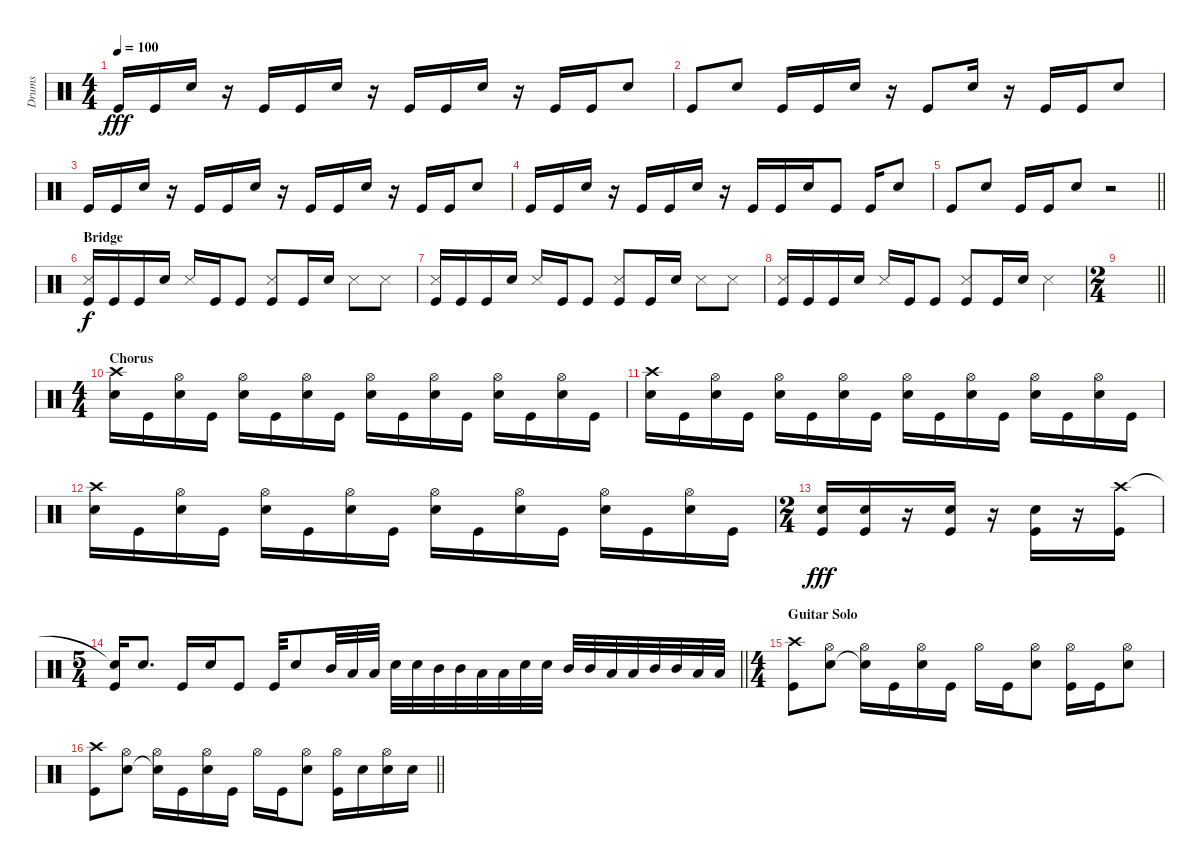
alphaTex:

\track ("Drums" "Drums") {instrument percussion}
\staff {score}
\articulation defaults
\ts (4 4)
\tempo 100
\clef neutral
\ks c "Kick (hit)".16{dy fff} "Kick (hit)".16 "Snare (hit) 2".16
r.16 "Kick (hit)".16 "Kick (hit)".16 "Snare (hit) 2".16 r.16 "Kick (hit)".16 "Kick (hit)".16 "Snare (hit) 2".16 r.16 "Kick (hit)".16 "Kick (hit)".16 "Snare (hit) 2".8 |
"Kick (hit)".8 "Snare (hit) 2".8 "Kick (hit)".16 "Kick (hit)".16 "Snare (hit) 2".16 r.16 "Kick (hit)".8 "Snare (hit) 2".16 r.16 "Kick (hit)".16 "Kick (hit)".16 "Snare (hit) 2".8 |
"Kick (hit)".16 "Kick (hit)".16 "Snare (hit) 2".16 r.16 "Kick (hit)".16 "Kick (hit)".16 "Snare (hit) 2".16 r.16 "Kick (hit)".16 "Kick (hit)".16 "Snare (hit) 2".16 r.16 "Kick (hit)".16 "Kick (hit)".16 "Snare (hit) 2".8 |
"Kick (hit)".16 "Kick (hit)".16 "Snare (hit) 2".16 r.16 "Kick (hit)".16 "Kick (hit)".16 "Snare (hit) 2".16 r.16 "Kick (hit)".16 "Kick (hit)".16 "Snare (hit) 2".16 "Kick (hit)".8 "Kick (hit)".16 "Snare (hit) 2".8 |
\barLineRight lightlight "Kick (hit)".8 "Snare (hit) 2".8 "Kick (hit)".16 "Kick (hit)".16 "Snare (hit) 2".8
r.2 |
\section ("" "Bridge")
("Snare (side stick) 3" "Kick (hit)").16{dy f} "Kick (hit)".16 "Kick (hit)".16 "Snare (hit) 2".16 "Snare (side stick) 3".16 "Kick (hit)".16 "Kick (hit)".8 ("Snare (side stick) 3" "Kick (hit)").8 "Kick (hit)".16 "Snare (hit) 2".16 "Snare (side stick) 3".8 "Snare (side stick) 3".8 |
("Snare (side stick) 3" "Kick (hit)").16 "Kick (hit)".16 "Kick (hit)".16 "Snare (hit) 2".16 "Snare (side stick) 3".16 "Kick (hit)".16 "Kick (hit)".8 ("Snare (side stick) 3" "Kick (hit)").8 "Kick (hit)".16 "Snare (hit) 2".16 "Snare (side stick) 3".8 "Snare (side stick) 3".8 |
("Snare (side stick) 3" "Kick (hit)").16 "Kick (hit)".16 "Kick (hit)".16 "Snare (hit) 2".16 "Snare (side stick) 3".16 "Kick (hit)".16 "Kick (hit)".8 ("Snare (side stick) 3" "Kick (hit)").8 "Kick (hit)".16 "Snare (hit) 2".16 "Snare (side stick) 3".4 |
\ts (2 4)
\barLineRight lightlight
|
\ts (4 4)
\section ("" "Chorus")
("Crash high (hit)" "Snare (hit) 2").16 "Kick (hit)".16 ("Hi-Hat (open)" "Snare (hit) 2").16 "Kick (hit)".16 ("Hi-Hat (open)" "Snare (hit) 2").16 "Kick (hit)".16 ("Hi-Hat (open)" "Snare (hit) 2").16 "Kick (hit)".16 ("Hi-Hat (open)" "Snare (hit) 2").16 "Kick (hit)".16 ("Hi-Hat (open)" "Snare (hit) 2").16 "Kick (hit)".16 ("Hi-Hat (open)" "Snare (hit) 2").16 "Kick (hit)".16 ("Hi-Hat (open)" "Snare (hit) 2").16 "Kick (hit)".16 |
("Crash high (hit)" "Snare (hit) 2").16 "Kick (hit)".16 ("Hi-Hat (open)" "Snare (hit) 2").16 "Kick (hit)".16 ("Hi-Hat (open)" "Snare (hit) 2").16 "Kick (hit)".16 ("Hi-Hat (open)" "Snare (hit) 2").16 "Kick (hit)".16 ("Hi-Hat (open)" "Snare (hit) 2").16 "Kick (hit)".16 ("Hi-Hat (open)" "Snare (hit) 2").16 "Kick (hit)".16 ("Hi-Hat (open)" "Snare (hit) 2").16 "Kick (hit)".16 ("Hi-Hat (open)" "Snare (hit) 2").16 "Kick (hit)".16 |
("Crash high (hit)" "Snare (hit) 2").16 "Kick (hit)".16 ("Hi-Hat (open)" "Snare (hit) 2").16 "Kick (hit)".16 ("Hi-Hat (open)" "Snare (hit) 2").16 "Kick (hit)".16 ("Hi-Hat (open)" "Snare (hit) 2").16 "Kick (hit)".16 ("Hi-Hat (open)" "Snare (hit) 2").16 "Kick (hit)".16 ("Hi-Hat (open)" "Snare (hit) 2").16 "Kick (hit)".16 ("Hi-Hat (open)" "Snare (hit) 2").16 "Kick (hit)".16 ("Hi-Hat (open)" "Snare (hit) 2").16 "Kick (hit)".16 |
\ts (2 4)
("Snare (hit) 2" "Kick (hit)").16{dy fff} ("Snare (hit) 2" "Kick (hit)").16 r.16 ("Snare (hit) 2" "Kick (hit)").16 r.16 ("Snare (hit) 2" "Kick (hit)").16 r.16 ("Crash high (hit)" "Kick (hit)").16 |
\ts (5 4)
\barLineRight lightlight
("Snare (hit)"{t} "Kick (hit)").16 "Snare (hit) 2".8{d} "Kick (hit)".16 "Snare (hit) 2".16 "Kick (hit)".8 "Kick (hit)".32 "Snare (hit) 2".8 "Mid Tom (hit)".32 "Low Tom (hit)".32 "Low Tom (hit)".32 "Snare (hit) 2".32 "Snare (hit) 2".32 "Mid Tom (hit)".32 "Mid Tom (hit)".32 "Low Tom (hit)".32 "Low Tom (hit)".32 "Snare (hit) 2".32 "Snare (hit) 2".32 "Mid Tom (hit)".32 "Mid Tom (hit)".32 "Low Tom (hit)".32 "Low Tom (hit)".32 "Mid Tom (hit)".32 "Mid Tom (hit)".32 "Low Tom (hit)".32 "Low Tom (hit)".32 |
\ts (4 4)
\section ("" "Guitar Solo")
("Crash high (hit)" "Kick (hit)").8 ("Hi-Hat (open)" "Snare (hit) 2").8 ("Hi-Hat (open)" "Snare (hit)"{t}).16 "Kick (hit)".16 ("Hi-Hat (open)" "Snare (hit) 2").16 "Kick (hit)".16 "Hi-Hat (open)".16 "Kick (hit)".16 ("Hi-Hat (open)" "Snare (hit) 2").8 ("Hi-Hat (open)" "Kick (hit)").16 "Kick (hit)".16 ("Hi-Hat (open)" "Snare (hit) 2").8 |
\barLineRight lightlight
("Crash high (hit)" "Kick (hit)").8 ("Hi-Hat (open)" "Snare (hit) 2").8 ("Hi-Hat (open)" "Snare (hit)"{t}).16 "Kick (hit)".16 ("Hi-Hat (open)" "Snare (hit) 2").16 "Kick (hit)".16 "Hi-Hat (open)".16 "Kick (hit)".16 ("Hi-Hat (open)" "Snare (hit) 2").8 ("Hi-Hat (open)" "Kick (hit)").16 "Snare (hit) 2".16 ("Hi-Hat (open)" "Snare (hit) 2").16 "Snare (hit) 2".16
